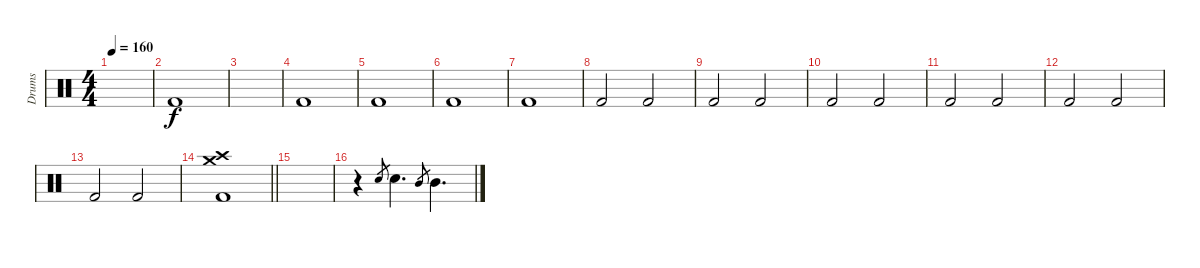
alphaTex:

\track ("Drums" "Drums") {instrument percussion}
\staff {score}
\articulation defaults
\ts (4 4)
\tempo 160
\clef neutral
\ks c
|
"Kick (hit) 2".1 |
|
"Kick (hit) 2".1 |
"Kick (hit) 2".1 |
"Kick (hit) 2".1 |
"Kick (hit) 2".1 |
"Kick (hit) 2".2 "Kick (hit) 2".2 |
"Kick (hit) 2".2 "Kick (hit) 2".2 |
"Kick (hit) 2".2 "Kick (hit) 2".2 |
"Kick (hit) 2".2 "Kick (hit) 2".2 |
"Kick (hit) 2".2 "Kick (hit) 2".2 |
"Kick (hit) 2".2 "Kick (hit) 2".2 |
\barLineRight lightlight
("Kick (hit) 2" "Crash high (hit)" "Crash medium (hit)").1 |
|
r.4 "Electric Snare (hit)".8{gr} "Electric Snare (hit)".4{d} "Mid Tom (hit)".8{gr} "Mid Tom (hit)".4{d}
